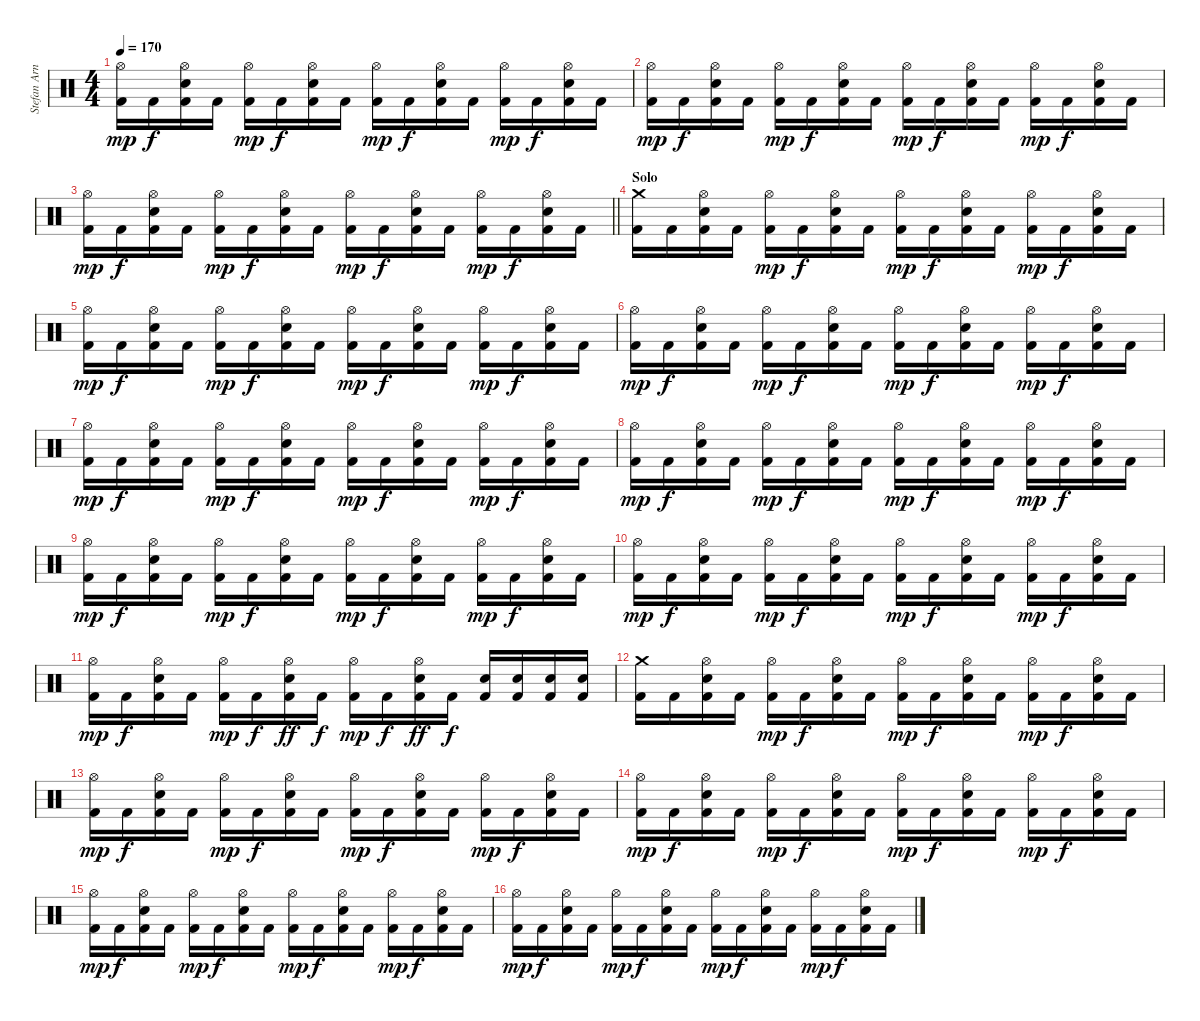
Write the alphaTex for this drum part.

\track ("Stefan Arnold" "Stefan Arn") {instrument percussion}
\staff {score}
\articulation defaults
\ts (4 4)
\tempo 170
\clef neutral
\ks c
("Hi-Hat (open)" "Kick (hit) 2").16{dy mp} "Kick (hit) 2".16{dy f} ("Hi-Hat (open)" "Electric Snare (hit)" "Kick (hit) 2").16 "Kick (hit) 2".16 ("Hi-Hat (open)" "Kick (hit) 2").16{dy mp} "Kick (hit) 2".16{dy f} ("Hi-Hat (open)" "Electric Snare (hit)" "Kick (hit) 2").16 "Kick (hit) 2".16 ("Hi-Hat (open)" "Kick (hit) 2").16{dy mp} "Kick (hit) 2".16{dy f} ("Hi-Hat (open)" "Electric Snare (hit)" "Kick (hit) 2").16 "Kick (hit) 2".16 ("Hi-Hat (open)" "Kick (hit) 2").16{dy mp} "Kick (hit) 2".16{dy f} ("Hi-Hat (open)" "Electric Snare (hit)" "Kick (hit) 2").16 "Kick (hit) 2".16 |
("Hi-Hat (open)" "Kick (hit) 2").16{dy mp} "Kick (hit) 2".16{dy f} ("Hi-Hat (open)" "Electric Snare (hit)" "Kick (hit) 2").16 "Kick (hit) 2".16 ("Hi-Hat (open)" "Kick (hit) 2").16{dy mp} "Kick (hit) 2".16{dy f} ("Hi-Hat (open)" "Electric Snare (hit)" "Kick (hit) 2").16 "Kick (hit) 2".16 ("Hi-Hat (open)" "Kick (hit) 2").16{dy mp} "Kick (hit) 2".16{dy f} ("Hi-Hat (open)" "Electric Snare (hit)" "Kick (hit) 2").16 "Kick (hit) 2".16 ("Hi-Hat (open)" "Kick (hit) 2").16{dy mp} "Kick (hit) 2".16{dy f} ("Hi-Hat (open)" "Electric Snare (hit)" "Kick (hit) 2").16 "Kick (hit) 2".16 |
\barLineRight lightlight
("Hi-Hat (open)" "Kick (hit) 2").16{dy mp} "Kick (hit) 2".16{dy f} ("Hi-Hat (open)" "Electric Snare (hit)" "Kick (hit) 2").16 "Kick (hit) 2".16 ("Hi-Hat (open)" "Kick (hit) 2").16{dy mp} "Kick (hit) 2".16{dy f} ("Hi-Hat (open)" "Electric Snare (hit)" "Kick (hit) 2").16 "Kick (hit) 2".16 ("Hi-Hat (open)" "Kick (hit) 2").16{dy mp} "Kick (hit) 2".16{dy f} ("Hi-Hat (open)" "Electric Snare (hit)" "Kick (hit) 2").16 "Kick (hit) 2".16 ("Hi-Hat (open)" "Kick (hit) 2").16{dy mp} "Kick (hit) 2".16{dy f} ("Hi-Hat (open)" "Electric Snare (hit)" "Kick (hit) 2").16 "Kick (hit) 2".16 |
\section ("" "Solo")
("Crash medium (hit)" "Kick (hit) 2").16 "Kick (hit) 2".16 ("Hi-Hat (open)" "Electric Snare (hit)" "Kick (hit) 2").16 "Kick (hit) 2".16 ("Hi-Hat (open)" "Kick (hit) 2").16{dy mp} "Kick (hit) 2".16{dy f} ("Hi-Hat (open)" "Electric Snare (hit)" "Kick (hit) 2").16 "Kick (hit) 2".16 ("Hi-Hat (open)" "Kick (hit) 2").16{dy mp} "Kick (hit) 2".16{dy f} ("Hi-Hat (open)" "Electric Snare (hit)" "Kick (hit) 2").16 "Kick (hit) 2".16 ("Hi-Hat (open)" "Kick (hit) 2").16{dy mp} "Kick (hit) 2".16{dy f} ("Hi-Hat (open)" "Electric Snare (hit)" "Kick (hit) 2").16 "Kick (hit) 2".16 |
("Hi-Hat (open)" "Kick (hit) 2").16{dy mp} "Kick (hit) 2".16{dy f} ("Hi-Hat (open)" "Electric Snare (hit)" "Kick (hit) 2").16 "Kick (hit) 2".16 ("Hi-Hat (open)" "Kick (hit) 2").16{dy mp} "Kick (hit) 2".16{dy f} ("Hi-Hat (open)" "Electric Snare (hit)" "Kick (hit) 2").16 "Kick (hit) 2".16 ("Hi-Hat (open)" "Kick (hit) 2").16{dy mp} "Kick (hit) 2".16{dy f} ("Hi-Hat (open)" "Electric Snare (hit)" "Kick (hit) 2").16 "Kick (hit) 2".16 ("Hi-Hat (open)" "Kick (hit) 2").16{dy mp} "Kick (hit) 2".16{dy f} ("Hi-Hat (open)" "Electric Snare (hit)" "Kick (hit) 2").16 "Kick (hit) 2".16 |
("Hi-Hat (open)" "Kick (hit) 2").16{dy mp} "Kick (hit) 2".16{dy f} ("Hi-Hat (open)" "Electric Snare (hit)" "Kick (hit) 2").16 "Kick (hit) 2".16 ("Hi-Hat (open)" "Kick (hit) 2").16{dy mp} "Kick (hit) 2".16{dy f} ("Hi-Hat (open)" "Electric Snare (hit)" "Kick (hit) 2").16 "Kick (hit) 2".16 ("Hi-Hat (open)" "Kick (hit) 2").16{dy mp} "Kick (hit) 2".16{dy f} ("Hi-Hat (open)" "Electric Snare (hit)" "Kick (hit) 2").16 "Kick (hit) 2".16 ("Hi-Hat (open)" "Kick (hit) 2").16{dy mp} "Kick (hit) 2".16{dy f} ("Hi-Hat (open)" "Electric Snare (hit)" "Kick (hit) 2").16 "Kick (hit) 2".16 |
("Hi-Hat (open)" "Kick (hit) 2").16{dy mp} "Kick (hit) 2".16{dy f} ("Hi-Hat (open)" "Electric Snare (hit)" "Kick (hit) 2").16 "Kick (hit) 2".16 ("Hi-Hat (open)" "Kick (hit) 2").16{dy mp} "Kick (hit) 2".16{dy f} ("Hi-Hat (open)" "Electric Snare (hit)" "Kick (hit) 2").16 "Kick (hit) 2".16 ("Hi-Hat (open)" "Kick (hit) 2").16{dy mp} "Kick (hit) 2".16{dy f} ("Hi-Hat (open)" "Electric Snare (hit)" "Kick (hit) 2").16 "Kick (hit) 2".16 ("Hi-Hat (open)" "Kick (hit) 2").16{dy mp} "Kick (hit) 2".16{dy f} ("Hi-Hat (open)" "Electric Snare (hit)" "Kick (hit) 2").16 "Kick (hit) 2".16 |
("Hi-Hat (open)" "Kick (hit) 2").16{dy mp} "Kick (hit) 2".16{dy f} ("Hi-Hat (open)" "Electric Snare (hit)" "Kick (hit) 2").16 "Kick (hit) 2".16 ("Hi-Hat (open)" "Kick (hit) 2").16{dy mp} "Kick (hit) 2".16{dy f} ("Hi-Hat (open)" "Electric Snare (hit)" "Kick (hit) 2").16 "Kick (hit) 2".16 ("Hi-Hat (open)" "Kick (hit) 2").16{dy mp} "Kick (hit) 2".16{dy f} ("Hi-Hat (open)" "Electric Snare (hit)" "Kick (hit) 2").16 "Kick (hit) 2".16 ("Hi-Hat (open)" "Kick (hit) 2").16{dy mp} "Kick (hit) 2".16{dy f} ("Hi-Hat (open)" "Electric Snare (hit)" "Kick (hit) 2").16 "Kick (hit) 2".16 |
("Hi-Hat (open)" "Kick (hit) 2").16{dy mp} "Kick (hit) 2".16{dy f} ("Hi-Hat (open)" "Electric Snare (hit)" "Kick (hit) 2").16 "Kick (hit) 2".16 ("Hi-Hat (open)" "Kick (hit) 2").16{dy mp} "Kick (hit) 2".16{dy f} ("Hi-Hat (open)" "Electric Snare (hit)" "Kick (hit) 2").16 "Kick (hit) 2".16 ("Hi-Hat (open)" "Kick (hit) 2").16{dy mp} "Kick (hit) 2".16{dy f} ("Hi-Hat (open)" "Electric Snare (hit)" "Kick (hit) 2").16 "Kick (hit) 2".16 ("Hi-Hat (open)" "Kick (hit) 2").16{dy mp} "Kick (hit) 2".16{dy f} ("Hi-Hat (open)" "Electric Snare (hit)" "Kick (hit) 2").16 "Kick (hit) 2".16 |
("Hi-Hat (open)" "Kick (hit) 2").16{dy mp} "Kick (hit) 2".16{dy f} ("Hi-Hat (open)" "Electric Snare (hit)" "Kick (hit) 2").16 "Kick (hit) 2".16 ("Hi-Hat (open)" "Kick (hit) 2").16{dy mp} "Kick (hit) 2".16{dy f} ("Hi-Hat (open)" "Electric Snare (hit)" "Kick (hit) 2").16 "Kick (hit) 2".16 ("Hi-Hat (open)" "Kick (hit) 2").16{dy mp} "Kick (hit) 2".16{dy f} ("Hi-Hat (open)" "Electric Snare (hit)" "Kick (hit) 2").16 "Kick (hit) 2".16 ("Hi-Hat (open)" "Kick (hit) 2").16{dy mp} "Kick (hit) 2".16{dy f} ("Hi-Hat (open)" "Electric Snare (hit)" "Kick (hit) 2").16 "Kick (hit) 2".16 |
("Hi-Hat (open)" "Kick (hit) 2").16{dy mp} "Kick (hit) 2".16{dy f} ("Hi-Hat (open)" "Electric Snare (hit)" "Kick (hit) 2").16 "Kick (hit) 2".16 ("Hi-Hat (open)" "Kick (hit) 2").16{dy mp} "Kick (hit) 2".16{dy f} ("Hi-Hat (open)" "Electric Snare (hit)" "Kick (hit) 2").16{dy ff} "Kick (hit) 2".16{dy f} ("Hi-Hat (open)" "Kick (hit) 2").16{dy mp} "Kick (hit) 2".16{dy f} ("Hi-Hat (open)" "Electric Snare (hit)" "Kick (hit) 2").16{dy ff} "Kick (hit) 2".16{dy f} ("Electric Snare (hit)" "Kick (hit) 2").16 ("Electric Snare (hit)" "Kick (hit) 2").16 ("Electric Snare (hit)" "Kick (hit) 2").16 ("Electric Snare (hit)" "Kick (hit) 2").16 |
("Crash medium (hit)" "Kick (hit) 2").16 "Kick (hit) 2".16 ("Hi-Hat (open)" "Electric Snare (hit)" "Kick (hit) 2").16 "Kick (hit) 2".16 ("Hi-Hat (open)" "Kick (hit) 2").16{dy mp} "Kick (hit) 2".16{dy f} ("Hi-Hat (open)" "Electric Snare (hit)" "Kick (hit) 2").16 "Kick (hit) 2".16 ("Hi-Hat (open)" "Kick (hit) 2").16{dy mp} "Kick (hit) 2".16{dy f} ("Hi-Hat (open)" "Electric Snare (hit)" "Kick (hit) 2").16 "Kick (hit) 2".16 ("Hi-Hat (open)" "Kick (hit) 2").16{dy mp} "Kick (hit) 2".16{dy f} ("Hi-Hat (open)" "Electric Snare (hit)" "Kick (hit) 2").16 "Kick (hit) 2".16 |
("Hi-Hat (open)" "Kick (hit) 2").16{dy mp} "Kick (hit) 2".16{dy f} ("Hi-Hat (open)" "Electric Snare (hit)" "Kick (hit) 2").16 "Kick (hit) 2".16 ("Hi-Hat (open)" "Kick (hit) 2").16{dy mp} "Kick (hit) 2".16{dy f} ("Hi-Hat (open)" "Electric Snare (hit)" "Kick (hit) 2").16 "Kick (hit) 2".16 ("Hi-Hat (open)" "Kick (hit) 2").16{dy mp} "Kick (hit) 2".16{dy f} ("Hi-Hat (open)" "Electric Snare (hit)" "Kick (hit) 2").16 "Kick (hit) 2".16 ("Hi-Hat (open)" "Kick (hit) 2").16{dy mp} "Kick (hit) 2".16{dy f} ("Hi-Hat (open)" "Electric Snare (hit)" "Kick (hit) 2").16 "Kick (hit) 2".16 |
("Hi-Hat (open)" "Kick (hit) 2").16{dy mp} "Kick (hit) 2".16{dy f} ("Hi-Hat (open)" "Electric Snare (hit)" "Kick (hit) 2").16 "Kick (hit) 2".16 ("Hi-Hat (open)" "Kick (hit) 2").16{dy mp} "Kick (hit) 2".16{dy f} ("Hi-Hat (open)" "Electric Snare (hit)" "Kick (hit) 2").16 "Kick (hit) 2".16 ("Hi-Hat (open)" "Kick (hit) 2").16{dy mp} "Kick (hit) 2".16{dy f} ("Hi-Hat (open)" "Electric Snare (hit)" "Kick (hit) 2").16 "Kick (hit) 2".16 ("Hi-Hat (open)" "Kick (hit) 2").16{dy mp} "Kick (hit) 2".16{dy f} ("Hi-Hat (open)" "Electric Snare (hit)" "Kick (hit) 2").16 "Kick (hit) 2".16 |
("Hi-Hat (open)" "Kick (hit) 2").16{dy mp} "Kick (hit) 2".16{dy f} ("Hi-Hat (open)" "Electric Snare (hit)" "Kick (hit) 2").16 "Kick (hit) 2".16 ("Hi-Hat (open)" "Kick (hit) 2").16{dy mp} "Kick (hit) 2".16{dy f} ("Hi-Hat (open)" "Electric Snare (hit)" "Kick (hit) 2").16 "Kick (hit) 2".16 ("Hi-Hat (open)" "Kick (hit) 2").16{dy mp} "Kick (hit) 2".16{dy f} ("Hi-Hat (open)" "Electric Snare (hit)" "Kick (hit) 2").16 "Kick (hit) 2".16 ("Hi-Hat (open)" "Kick (hit) 2").16{dy mp} "Kick (hit) 2".16{dy f} ("Hi-Hat (open)" "Electric Snare (hit)" "Kick (hit) 2").16 "Kick (hit) 2".16 |
("Hi-Hat (open)" "Kick (hit) 2").16{dy mp} "Kick (hit) 2".16{dy f} ("Hi-Hat (open)" "Electric Snare (hit)" "Kick (hit) 2").16 "Kick (hit) 2".16 ("Hi-Hat (open)" "Kick (hit) 2").16{dy mp} "Kick (hit) 2".16{dy f} ("Hi-Hat (open)" "Electric Snare (hit)" "Kick (hit) 2").16 "Kick (hit) 2".16 ("Hi-Hat (open)" "Kick (hit) 2").16{dy mp} "Kick (hit) 2".16{dy f} ("Hi-Hat (open)" "Electric Snare (hit)" "Kick (hit) 2").16 "Kick (hit) 2".16 ("Hi-Hat (open)" "Kick (hit) 2").16{dy mp} "Kick (hit) 2".16{dy f} ("Hi-Hat (open)" "Electric Snare (hit)" "Kick (hit) 2").16 "Kick (hit) 2".16
